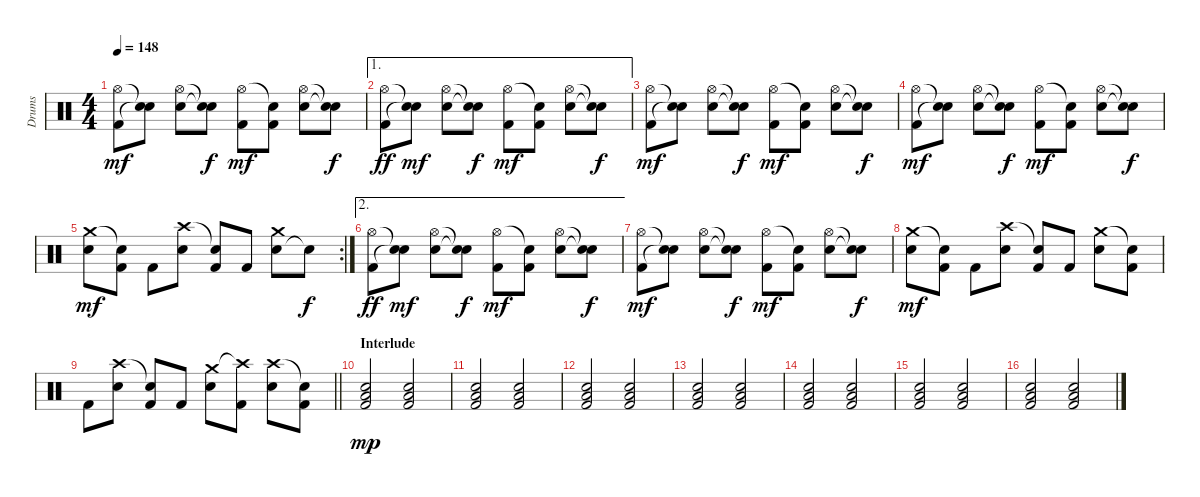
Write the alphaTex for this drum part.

\track ("Drums" "Drums") {instrument percussion}
\staff {score}
\articulation defaults
\ts (4 4)
\tempo 148
\clef neutral
\ks c
("Kick (hit) 2" "Hi-Hat (open)").8{dy mf} ("Snare (hit)"{t} "Snare (hit)"{t}).8 ("Snare (hit) 2" "Hi-Hat (open)").8 ("Snare (hit)"{t} "Snare (hit)"{t}).8{dy f} ("Kick (hit) 2" "Hi-Hat (open)").8{dy mf} ("Kick (hit) 2" "Snare (hit)"{t}).8 ("Snare (hit) 2" "Hi-Hat (open)").8 ("Snare (hit)"{t} "Snare (hit)"{t}).8{dy f} |
\ae 1
("Kick (hit) 2" "Hi-Hat (open)").8{dy ff} ("Snare (hit)"{t} "Snare (hit)"{t}).8{dy mf} ("Snare (hit) 2" "Hi-Hat (open)").8 ("Snare (hit)"{t} "Snare (hit)"{t}).8{dy f} ("Kick (hit) 2" "Hi-Hat (open)").8{dy mf} ("Kick (hit) 2" "Snare (hit)"{t}).8 ("Snare (hit) 2" "Hi-Hat (open)").8 ("Snare (hit)"{t} "Snare (hit)"{t}).8{dy f} |
("Kick (hit) 2" "Hi-Hat (open)").8{dy mf} ("Snare (hit)"{t} "Snare (hit)"{t}).8 ("Snare (hit) 2" "Hi-Hat (open)").8 ("Snare (hit)"{t} "Snare (hit)"{t}).8{dy f} ("Kick (hit) 2" "Hi-Hat (open)").8{dy mf} ("Kick (hit) 2" "Snare (hit)"{t}).8 ("Snare (hit) 2" "Hi-Hat (open)").8 ("Snare (hit)"{t} "Snare (hit)"{t}).8{dy f} |
("Kick (hit) 2" "Hi-Hat (open)").8{dy mf} ("Snare (hit)"{t} "Snare (hit)"{t}).8 ("Snare (hit) 2" "Hi-Hat (open)").8 ("Snare (hit)"{t} "Snare (hit)"{t}).8{dy f} ("Kick (hit) 2" "Hi-Hat (open)").8{dy mf} ("Kick (hit) 2" "Snare (hit)"{t}).8 ("Snare (hit) 2" "Hi-Hat (open)").8 ("Snare (hit)"{t} "Snare (hit)"{t}).8{dy f} |
\rc 2
("Snare (hit) 2" "Crash medium (hit)").8{dy mf} ("Kick (hit) 2" "Snare (hit)"{t}).8 "Kick (hit) 2".8 ("Snare (hit) 2" "Crash high (hit)").8 ("Kick (hit) 2" "Snare (hit)"{t}).8 "Kick (hit) 2".8 ("Snare (hit) 2" "Crash medium (hit)").8 "Snare (hit)"{t}.8{dy f} |
\ae 2
("Kick (hit) 2" "Hi-Hat (open)").8{dy ff} ("Snare (hit)"{t} "Snare (hit)"{t}).8{dy mf} ("Snare (hit) 2" "Hi-Hat (open)").8 ("Snare (hit)"{t} "Snare (hit)"{t}).8{dy f} ("Kick (hit) 2" "Hi-Hat (open)").8{dy mf} ("Kick (hit) 2" "Snare (hit)"{t}).8 ("Snare (hit) 2" "Hi-Hat (open)").8 ("Snare (hit)"{t} "Snare (hit)"{t}).8{dy f} |
("Kick (hit) 2" "Hi-Hat (open)").8{dy mf} ("Snare (hit)"{t} "Snare (hit)"{t}).8 ("Snare (hit) 2" "Hi-Hat (open)").8 ("Snare (hit)"{t} "Snare (hit)"{t}).8{dy f} ("Kick (hit) 2" "Hi-Hat (open)").8{dy mf} ("Kick (hit) 2" "Snare (hit)"{t}).8 ("Snare (hit) 2" "Hi-Hat (open)").8 ("Snare (hit)"{t} "Snare (hit)"{t}).8{dy f} |
("Snare (hit) 2" "Crash medium (hit)").8{dy mf} ("Kick (hit) 2" "Snare (hit)"{t}).8 "Kick (hit) 2".8 ("Snare (hit) 2" "Crash high (hit)").8 ("Kick (hit) 2" "Snare (hit)"{t}).8 "Kick (hit) 2".8 ("Snare (hit) 2" "Crash medium (hit)").8 ("Kick (hit) 2" "Snare (hit)"{t}).8 |
\barLineRight lightlight "Kick (hit) 2".8
("Snare (hit) 2" "Crash high (hit)").8 ("Kick (hit) 2" "Snare (hit)"{t}).8 "Kick (hit) 2".8 ("Snare (hit) 2" "Crash medium (hit)").8 ("Kick (hit) 2" "Crash high (hit)"{t}).8 ("Snare (hit) 2" "Crash high (hit)").8 ("Kick (hit) 2" "Snare (hit)"{t}).8 |
\section ("" "Interlude")
("Kick (hit) 2" "Low Floor Tom (hit)" "Hand Clap (hit)").2{dy mp} ("Kick (hit) 2" "Low Floor Tom (hit)" "Hand Clap (hit)").2 |
("Kick (hit) 2" "Low Floor Tom (hit)" "Hand Clap (hit)").2 ("Kick (hit) 2" "Low Floor Tom (hit)" "Hand Clap (hit)").2 |
("Kick (hit) 2" "Low Floor Tom (hit)" "Hand Clap (hit)").2 ("Kick (hit) 2" "Low Floor Tom (hit)" "Hand Clap (hit)").2 |
("Kick (hit) 2" "Low Floor Tom (hit)" "Hand Clap (hit)").2 ("Kick (hit) 2" "Low Floor Tom (hit)" "Hand Clap (hit)").2 |
("Kick (hit) 2" "Low Floor Tom (hit)" "Hand Clap (hit)").2 ("Kick (hit) 2" "Low Floor Tom (hit)" "Hand Clap (hit)").2 |
("Kick (hit) 2" "Low Floor Tom (hit)" "Hand Clap (hit)").2 ("Kick (hit) 2" "Low Floor Tom (hit)" "Hand Clap (hit)").2 |
("Kick (hit) 2" "Low Floor Tom (hit)" "Hand Clap (hit)").2 ("Kick (hit) 2" "Low Floor Tom (hit)" "Hand Clap (hit)").2
